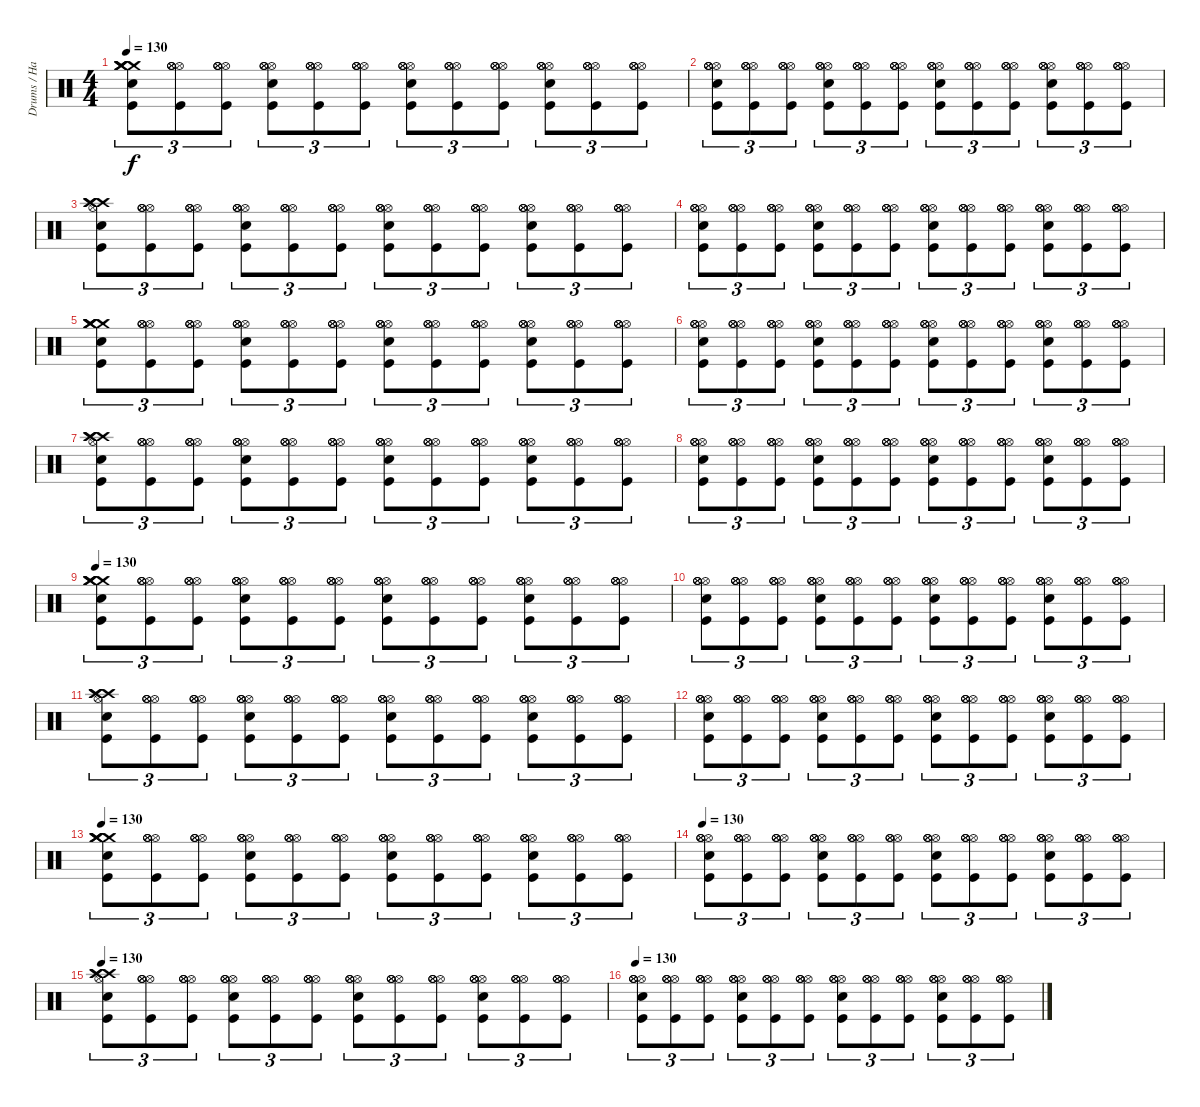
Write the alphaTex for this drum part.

\track ("Drums / Hammer of God" "Drums / Ha") {instrument percussion}
\staff {score}
\articulation defaults
\ts (4 4)
\tempo 130
\clef neutral
\ks c
("Crash medium (hit)" "Crash medium (hit)" "Snare (hit) 2" "Crash medium (hit)" "Crash medium (hit)" "Kick (hit)").8{tu (3 2) dy f} ("Hi-Hat (open)" "Hi-Hat (open)" "Hi-Hat (open)" "Hi-Hat (open)" "Kick (hit)").8{tu (3 2)} ("Hi-Hat (open)" "Hi-Hat (open)" "Hi-Hat (open)" "Hi-Hat (open)" "Kick (hit)").8{tu (3 2)} ("Hi-Hat (open)" "Hi-Hat (open)" "Snare (hit) 2" "Hi-Hat (open)" "Hi-Hat (open)" "Kick (hit)").8{tu (3 2)} ("Hi-Hat (open)" "Hi-Hat (open)" "Hi-Hat (open)" "Hi-Hat (open)" "Kick (hit)").8{tu (3 2)} ("Hi-Hat (open)" "Hi-Hat (open)" "Hi-Hat (open)" "Hi-Hat (open)" "Kick (hit)").8{tu (3 2)} ("Hi-Hat (open)" "Hi-Hat (open)" "Snare (hit) 2" "Hi-Hat (open)" "Hi-Hat (open)" "Kick (hit)").8{tu (3 2)} ("Hi-Hat (open)" "Hi-Hat (open)" "Hi-Hat (open)" "Hi-Hat (open)" "Kick (hit)").8{tu (3 2)} ("Hi-Hat (open)" "Hi-Hat (open)" "Hi-Hat (open)" "Hi-Hat (open)" "Kick (hit)").8{tu (3 2)} ("Hi-Hat (open)" "Hi-Hat (open)" "Snare (hit) 2" "Hi-Hat (open)" "Hi-Hat (open)" "Kick (hit)").8{tu (3 2)} ("Hi-Hat (open)" "Hi-Hat (open)" "Hi-Hat (open)" "Hi-Hat (open)" "Kick (hit)").8{tu (3 2)} ("Hi-Hat (open)" "Hi-Hat (open)" "Hi-Hat (open)" "Hi-Hat (open)" "Kick (hit)").8{tu (3 2)} |
("Hi-Hat (open)" "Hi-Hat (open)" "Snare (hit) 2" "Hi-Hat (open)" "Hi-Hat (open)" "Kick (hit)").8{tu (3 2)} ("Hi-Hat (open)" "Hi-Hat (open)" "Hi-Hat (open)" "Hi-Hat (open)" "Kick (hit)").8{tu (3 2)} ("Hi-Hat (open)" "Hi-Hat (open)" "Hi-Hat (open)" "Hi-Hat (open)" "Kick (hit)").8{tu (3 2)} ("Hi-Hat (open)" "Hi-Hat (open)" "Snare (hit) 2" "Hi-Hat (open)" "Hi-Hat (open)" "Kick (hit)").8{tu (3 2)} ("Hi-Hat (open)" "Hi-Hat (open)" "Hi-Hat (open)" "Hi-Hat (open)" "Kick (hit)").8{tu (3 2)} ("Hi-Hat (open)" "Hi-Hat (open)" "Hi-Hat (open)" "Hi-Hat (open)" "Kick (hit)").8{tu (3 2)} ("Hi-Hat (open)" "Hi-Hat (open)" "Snare (hit) 2" "Hi-Hat (open)" "Hi-Hat (open)" "Kick (hit)").8{tu (3 2)} ("Hi-Hat (open)" "Hi-Hat (open)" "Hi-Hat (open)" "Hi-Hat (open)" "Kick (hit)").8{tu (3 2)} ("Hi-Hat (open)" "Hi-Hat (open)" "Hi-Hat (open)" "Hi-Hat (open)" "Kick (hit)").8{tu (3 2)} ("Hi-Hat (open)" "Hi-Hat (open)" "Snare (hit) 2" "Hi-Hat (open)" "Hi-Hat (open)" "Kick (hit)").8{tu (3 2)} ("Hi-Hat (open)" "Hi-Hat (open)" "Hi-Hat (open)" "Hi-Hat (open)" "Kick (hit)").8{tu (3 2)} ("Hi-Hat (open)" "Hi-Hat (open)" "Hi-Hat (open)" "Hi-Hat (open)" "Kick (hit)").8{tu (3 2)} |
("Crash high (hit)" "Crash high (hit)" "Snare (hit) 2" "Crash high (hit)" "Hi-Hat (open)" "Kick (hit)").8{tu (3 2)} ("Hi-Hat (open)" "Hi-Hat (open)" "Hi-Hat (open)" "Hi-Hat (open)" "Kick (hit)").8{tu (3 2)} ("Hi-Hat (open)" "Hi-Hat (open)" "Hi-Hat (open)" "Hi-Hat (open)" "Kick (hit)").8{tu (3 2)} ("Hi-Hat (open)" "Hi-Hat (open)" "Snare (hit) 2" "Hi-Hat (open)" "Hi-Hat (open)" "Kick (hit)").8{tu (3 2)} ("Hi-Hat (open)" "Hi-Hat (open)" "Hi-Hat (open)" "Hi-Hat (open)" "Kick (hit)").8{tu (3 2)} ("Hi-Hat (open)" "Hi-Hat (open)" "Hi-Hat (open)" "Hi-Hat (open)" "Kick (hit)").8{tu (3 2)} ("Hi-Hat (open)" "Hi-Hat (open)" "Snare (hit) 2" "Hi-Hat (open)" "Hi-Hat (open)" "Kick (hit)").8{tu (3 2)} ("Hi-Hat (open)" "Hi-Hat (open)" "Hi-Hat (open)" "Hi-Hat (open)" "Kick (hit)").8{tu (3 2)} ("Hi-Hat (open)" "Hi-Hat (open)" "Hi-Hat (open)" "Hi-Hat (open)" "Kick (hit)").8{tu (3 2)} ("Hi-Hat (open)" "Hi-Hat (open)" "Snare (hit) 2" "Hi-Hat (open)" "Hi-Hat (open)" "Kick (hit)").8{tu (3 2)} ("Hi-Hat (open)" "Hi-Hat (open)" "Hi-Hat (open)" "Hi-Hat (open)" "Kick (hit)").8{tu (3 2)} ("Hi-Hat (open)" "Hi-Hat (open)" "Hi-Hat (open)" "Hi-Hat (open)" "Kick (hit)").8{tu (3 2)} |
("Hi-Hat (open)" "Hi-Hat (open)" "Snare (hit) 2" "Hi-Hat (open)" "Hi-Hat (open)" "Kick (hit)").8{tu (3 2)} ("Hi-Hat (open)" "Hi-Hat (open)" "Hi-Hat (open)" "Hi-Hat (open)" "Kick (hit)").8{tu (3 2)} ("Hi-Hat (open)" "Hi-Hat (open)" "Hi-Hat (open)" "Hi-Hat (open)" "Kick (hit)").8{tu (3 2)} ("Hi-Hat (open)" "Hi-Hat (open)" "Snare (hit) 2" "Hi-Hat (open)" "Hi-Hat (open)" "Kick (hit)").8{tu (3 2)} ("Hi-Hat (open)" "Hi-Hat (open)" "Hi-Hat (open)" "Hi-Hat (open)" "Kick (hit)").8{tu (3 2)} ("Hi-Hat (open)" "Hi-Hat (open)" "Hi-Hat (open)" "Hi-Hat (open)" "Kick (hit)").8{tu (3 2)} ("Hi-Hat (open)" "Hi-Hat (open)" "Snare (hit) 2" "Hi-Hat (open)" "Hi-Hat (open)" "Kick (hit)").8{tu (3 2)} ("Hi-Hat (open)" "Hi-Hat (open)" "Hi-Hat (open)" "Hi-Hat (open)" "Kick (hit)").8{tu (3 2)} ("Hi-Hat (open)" "Hi-Hat (open)" "Hi-Hat (open)" "Hi-Hat (open)" "Kick (hit)").8{tu (3 2)} ("Hi-Hat (open)" "Hi-Hat (open)" "Snare (hit) 2" "Hi-Hat (open)" "Hi-Hat (open)" "Kick (hit)").8{tu (3 2)} ("Hi-Hat (open)" "Hi-Hat (open)" "Hi-Hat (open)" "Hi-Hat (open)" "Kick (hit)").8{tu (3 2)} ("Hi-Hat (open)" "Hi-Hat (open)" "Hi-Hat (open)" "Hi-Hat (open)" "Kick (hit)").8{tu (3 2)} |
("Crash medium (hit)" "Crash medium (hit)" "Snare (hit) 2" "Crash medium (hit)" "Crash medium (hit)" "Kick (hit)").8{tu (3 2)} ("Hi-Hat (open)" "Hi-Hat (open)" "Hi-Hat (open)" "Hi-Hat (open)" "Kick (hit)").8{tu (3 2)} ("Hi-Hat (open)" "Hi-Hat (open)" "Hi-Hat (open)" "Hi-Hat (open)" "Kick (hit)").8{tu (3 2)} ("Hi-Hat (open)" "Hi-Hat (open)" "Snare (hit) 2" "Hi-Hat (open)" "Hi-Hat (open)" "Kick (hit)").8{tu (3 2)} ("Hi-Hat (open)" "Hi-Hat (open)" "Hi-Hat (open)" "Hi-Hat (open)" "Kick (hit)").8{tu (3 2)} ("Hi-Hat (open)" "Hi-Hat (open)" "Hi-Hat (open)" "Hi-Hat (open)" "Kick (hit)").8{tu (3 2)} ("Hi-Hat (open)" "Hi-Hat (open)" "Snare (hit) 2" "Hi-Hat (open)" "Hi-Hat (open)" "Kick (hit)").8{tu (3 2)} ("Hi-Hat (open)" "Hi-Hat (open)" "Hi-Hat (open)" "Hi-Hat (open)" "Kick (hit)").8{tu (3 2)} ("Hi-Hat (open)" "Hi-Hat (open)" "Hi-Hat (open)" "Hi-Hat (open)" "Kick (hit)").8{tu (3 2)} ("Hi-Hat (open)" "Hi-Hat (open)" "Snare (hit) 2" "Hi-Hat (open)" "Hi-Hat (open)" "Kick (hit)").8{tu (3 2)} ("Hi-Hat (open)" "Hi-Hat (open)" "Hi-Hat (open)" "Hi-Hat (open)" "Kick (hit)").8{tu (3 2)} ("Hi-Hat (open)" "Hi-Hat (open)" "Hi-Hat (open)" "Hi-Hat (open)" "Kick (hit)").8{tu (3 2)} |
("Hi-Hat (open)" "Hi-Hat (open)" "Snare (hit) 2" "Hi-Hat (open)" "Hi-Hat (open)" "Kick (hit)").8{tu (3 2)} ("Hi-Hat (open)" "Hi-Hat (open)" "Hi-Hat (open)" "Hi-Hat (open)" "Kick (hit)").8{tu (3 2)} ("Hi-Hat (open)" "Hi-Hat (open)" "Hi-Hat (open)" "Hi-Hat (open)" "Kick (hit)").8{tu (3 2)} ("Hi-Hat (open)" "Hi-Hat (open)" "Snare (hit) 2" "Hi-Hat (open)" "Hi-Hat (open)" "Kick (hit)").8{tu (3 2)} ("Hi-Hat (open)" "Hi-Hat (open)" "Hi-Hat (open)" "Hi-Hat (open)" "Kick (hit)").8{tu (3 2)} ("Hi-Hat (open)" "Hi-Hat (open)" "Hi-Hat (open)" "Hi-Hat (open)" "Kick (hit)").8{tu (3 2)} ("Hi-Hat (open)" "Hi-Hat (open)" "Snare (hit) 2" "Hi-Hat (open)" "Hi-Hat (open)" "Kick (hit)").8{tu (3 2)} ("Hi-Hat (open)" "Hi-Hat (open)" "Hi-Hat (open)" "Hi-Hat (open)" "Kick (hit)").8{tu (3 2)} ("Hi-Hat (open)" "Hi-Hat (open)" "Hi-Hat (open)" "Hi-Hat (open)" "Kick (hit)").8{tu (3 2)} ("Hi-Hat (open)" "Hi-Hat (open)" "Snare (hit) 2" "Hi-Hat (open)" "Hi-Hat (open)" "Kick (hit)").8{tu (3 2)} ("Hi-Hat (open)" "Hi-Hat (open)" "Hi-Hat (open)" "Hi-Hat (open)" "Kick (hit)").8{tu (3 2)} ("Hi-Hat (open)" "Hi-Hat (open)" "Hi-Hat (open)" "Hi-Hat (open)" "Kick (hit)").8{tu (3 2)} |
("Crash high (hit)" "Crash high (hit)" "Snare (hit) 2" "Crash high (hit)" "Hi-Hat (open)" "Kick (hit)").8{tu (3 2)} ("Hi-Hat (open)" "Hi-Hat (open)" "Hi-Hat (open)" "Hi-Hat (open)" "Kick (hit)").8{tu (3 2)} ("Hi-Hat (open)" "Hi-Hat (open)" "Hi-Hat (open)" "Hi-Hat (open)" "Kick (hit)").8{tu (3 2)} ("Hi-Hat (open)" "Hi-Hat (open)" "Snare (hit) 2" "Hi-Hat (open)" "Hi-Hat (open)" "Kick (hit)").8{tu (3 2)} ("Hi-Hat (open)" "Hi-Hat (open)" "Hi-Hat (open)" "Hi-Hat (open)" "Kick (hit)").8{tu (3 2)} ("Hi-Hat (open)" "Hi-Hat (open)" "Hi-Hat (open)" "Hi-Hat (open)" "Kick (hit)").8{tu (3 2)} ("Hi-Hat (open)" "Hi-Hat (open)" "Snare (hit) 2" "Hi-Hat (open)" "Hi-Hat (open)" "Kick (hit)").8{tu (3 2)} ("Hi-Hat (open)" "Hi-Hat (open)" "Hi-Hat (open)" "Hi-Hat (open)" "Kick (hit)").8{tu (3 2)} ("Hi-Hat (open)" "Hi-Hat (open)" "Hi-Hat (open)" "Hi-Hat (open)" "Kick (hit)").8{tu (3 2)} ("Hi-Hat (open)" "Hi-Hat (open)" "Snare (hit) 2" "Hi-Hat (open)" "Hi-Hat (open)" "Kick (hit)").8{tu (3 2)} ("Hi-Hat (open)" "Hi-Hat (open)" "Hi-Hat (open)" "Hi-Hat (open)" "Kick (hit)").8{tu (3 2)} ("Hi-Hat (open)" "Hi-Hat (open)" "Hi-Hat (open)" "Hi-Hat (open)" "Kick (hit)").8{tu (3 2)} |
("Hi-Hat (open)" "Hi-Hat (open)" "Snare (hit) 2" "Hi-Hat (open)" "Hi-Hat (open)" "Kick (hit)").8{tu (3 2)} ("Hi-Hat (open)" "Hi-Hat (open)" "Hi-Hat (open)" "Hi-Hat (open)" "Kick (hit)").8{tu (3 2)} ("Hi-Hat (open)" "Hi-Hat (open)" "Hi-Hat (open)" "Hi-Hat (open)" "Kick (hit)").8{tu (3 2)} ("Hi-Hat (open)" "Hi-Hat (open)" "Snare (hit) 2" "Hi-Hat (open)" "Hi-Hat (open)" "Kick (hit)").8{tu (3 2)} ("Hi-Hat (open)" "Hi-Hat (open)" "Hi-Hat (open)" "Hi-Hat (open)" "Kick (hit)").8{tu (3 2)} ("Hi-Hat (open)" "Hi-Hat (open)" "Hi-Hat (open)" "Hi-Hat (open)" "Kick (hit)").8{tu (3 2)} ("Hi-Hat (open)" "Hi-Hat (open)" "Snare (hit) 2" "Hi-Hat (open)" "Hi-Hat (open)" "Kick (hit)").8{tu (3 2)} ("Hi-Hat (open)" "Hi-Hat (open)" "Hi-Hat (open)" "Hi-Hat (open)" "Kick (hit)").8{tu (3 2)} ("Hi-Hat (open)" "Hi-Hat (open)" "Hi-Hat (open)" "Hi-Hat (open)" "Kick (hit)").8{tu (3 2)} ("Hi-Hat (open)" "Hi-Hat (open)" "Snare (hit) 2" "Hi-Hat (open)" "Hi-Hat (open)" "Kick (hit)").8{tu (3 2)} ("Hi-Hat (open)" "Hi-Hat (open)" "Hi-Hat (open)" "Hi-Hat (open)" "Kick (hit)").8{tu (3 2)} ("Hi-Hat (open)" "Hi-Hat (open)" "Hi-Hat (open)" "Hi-Hat (open)" "Kick (hit)").8{tu (3 2)} |
\tempo 130
("Crash medium (hit)" "Crash medium (hit)" "Snare (hit) 2" "Crash medium (hit)" "Crash medium (hit)" "Kick (hit)").8{tu (3 2)} ("Hi-Hat (open)" "Hi-Hat (open)" "Hi-Hat (open)" "Hi-Hat (open)" "Kick (hit)").8{tu (3 2)} ("Hi-Hat (open)" "Hi-Hat (open)" "Hi-Hat (open)" "Hi-Hat (open)" "Kick (hit)").8{tu (3 2)} ("Hi-Hat (open)" "Hi-Hat (open)" "Snare (hit) 2" "Hi-Hat (open)" "Hi-Hat (open)" "Kick (hit)").8{tu (3 2)} ("Hi-Hat (open)" "Hi-Hat (open)" "Hi-Hat (open)" "Hi-Hat (open)" "Kick (hit)").8{tu (3 2)} ("Hi-Hat (open)" "Hi-Hat (open)" "Hi-Hat (open)" "Hi-Hat (open)" "Kick (hit)").8{tu (3 2)} ("Hi-Hat (open)" "Hi-Hat (open)" "Snare (hit) 2" "Hi-Hat (open)" "Hi-Hat (open)" "Kick (hit)").8{tu (3 2)} ("Hi-Hat (open)" "Hi-Hat (open)" "Hi-Hat (open)" "Hi-Hat (open)" "Kick (hit)").8{tu (3 2)} ("Hi-Hat (open)" "Hi-Hat (open)" "Hi-Hat (open)" "Hi-Hat (open)" "Kick (hit)").8{tu (3 2)} ("Hi-Hat (open)" "Hi-Hat (open)" "Snare (hit) 2" "Hi-Hat (open)" "Hi-Hat (open)" "Kick (hit)").8{tu (3 2)} ("Hi-Hat (open)" "Hi-Hat (open)" "Hi-Hat (open)" "Hi-Hat (open)" "Kick (hit)").8{tu (3 2)} ("Hi-Hat (open)" "Hi-Hat (open)" "Hi-Hat (open)" "Hi-Hat (open)" "Kick (hit)").8{tu (3 2)} |
("Hi-Hat (open)" "Hi-Hat (open)" "Snare (hit) 2" "Hi-Hat (open)" "Hi-Hat (open)" "Kick (hit)").8{tu (3 2)} ("Hi-Hat (open)" "Hi-Hat (open)" "Hi-Hat (open)" "Hi-Hat (open)" "Kick (hit)").8{tu (3 2)} ("Hi-Hat (open)" "Hi-Hat (open)" "Hi-Hat (open)" "Hi-Hat (open)" "Kick (hit)").8{tu (3 2)} ("Hi-Hat (open)" "Hi-Hat (open)" "Snare (hit) 2" "Hi-Hat (open)" "Hi-Hat (open)" "Kick (hit)").8{tu (3 2)} ("Hi-Hat (open)" "Hi-Hat (open)" "Hi-Hat (open)" "Hi-Hat (open)" "Kick (hit)").8{tu (3 2)} ("Hi-Hat (open)" "Hi-Hat (open)" "Hi-Hat (open)" "Hi-Hat (open)" "Kick (hit)").8{tu (3 2)} ("Hi-Hat (open)" "Hi-Hat (open)" "Snare (hit) 2" "Hi-Hat (open)" "Hi-Hat (open)" "Kick (hit)").8{tu (3 2)} ("Hi-Hat (open)" "Hi-Hat (open)" "Hi-Hat (open)" "Hi-Hat (open)" "Kick (hit)").8{tu (3 2)} ("Hi-Hat (open)" "Hi-Hat (open)" "Hi-Hat (open)" "Hi-Hat (open)" "Kick (hit)").8{tu (3 2)} ("Hi-Hat (open)" "Hi-Hat (open)" "Snare (hit) 2" "Hi-Hat (open)" "Hi-Hat (open)" "Kick (hit)").8{tu (3 2)} ("Hi-Hat (open)" "Hi-Hat (open)" "Hi-Hat (open)" "Hi-Hat (open)" "Kick (hit)").8{tu (3 2)} ("Hi-Hat (open)" "Hi-Hat (open)" "Hi-Hat (open)" "Hi-Hat (open)" "Kick (hit)").8{tu (3 2)} |
("Crash high (hit)" "Crash high (hit)" "Snare (hit) 2" "Crash high (hit)" "Hi-Hat (open)" "Kick (hit)").8{tu (3 2)} ("Hi-Hat (open)" "Hi-Hat (open)" "Hi-Hat (open)" "Hi-Hat (open)" "Kick (hit)").8{tu (3 2)} ("Hi-Hat (open)" "Hi-Hat (open)" "Hi-Hat (open)" "Hi-Hat (open)" "Kick (hit)").8{tu (3 2)} ("Hi-Hat (open)" "Hi-Hat (open)" "Snare (hit) 2" "Hi-Hat (open)" "Hi-Hat (open)" "Kick (hit)").8{tu (3 2)} ("Hi-Hat (open)" "Hi-Hat (open)" "Hi-Hat (open)" "Hi-Hat (open)" "Kick (hit)").8{tu (3 2)} ("Hi-Hat (open)" "Hi-Hat (open)" "Hi-Hat (open)" "Hi-Hat (open)" "Kick (hit)").8{tu (3 2)} ("Hi-Hat (open)" "Hi-Hat (open)" "Snare (hit) 2" "Hi-Hat (open)" "Hi-Hat (open)" "Kick (hit)").8{tu (3 2)} ("Hi-Hat (open)" "Hi-Hat (open)" "Hi-Hat (open)" "Hi-Hat (open)" "Kick (hit)").8{tu (3 2)} ("Hi-Hat (open)" "Hi-Hat (open)" "Hi-Hat (open)" "Hi-Hat (open)" "Kick (hit)").8{tu (3 2)} ("Hi-Hat (open)" "Hi-Hat (open)" "Snare (hit) 2" "Hi-Hat (open)" "Hi-Hat (open)" "Kick (hit)").8{tu (3 2)} ("Hi-Hat (open)" "Hi-Hat (open)" "Hi-Hat (open)" "Hi-Hat (open)" "Kick (hit)").8{tu (3 2)} ("Hi-Hat (open)" "Hi-Hat (open)" "Hi-Hat (open)" "Hi-Hat (open)" "Kick (hit)").8{tu (3 2)} |
("Hi-Hat (open)" "Hi-Hat (open)" "Snare (hit) 2" "Hi-Hat (open)" "Hi-Hat (open)" "Kick (hit)").8{tu (3 2)} ("Hi-Hat (open)" "Hi-Hat (open)" "Hi-Hat (open)" "Hi-Hat (open)" "Kick (hit)").8{tu (3 2)} ("Hi-Hat (open)" "Hi-Hat (open)" "Hi-Hat (open)" "Hi-Hat (open)" "Kick (hit)").8{tu (3 2)} ("Hi-Hat (open)" "Hi-Hat (open)" "Snare (hit) 2" "Hi-Hat (open)" "Hi-Hat (open)" "Kick (hit)").8{tu (3 2)} ("Hi-Hat (open)" "Hi-Hat (open)" "Hi-Hat (open)" "Hi-Hat (open)" "Kick (hit)").8{tu (3 2)} ("Hi-Hat (open)" "Hi-Hat (open)" "Hi-Hat (open)" "Hi-Hat (open)" "Kick (hit)").8{tu (3 2)} ("Hi-Hat (open)" "Hi-Hat (open)" "Snare (hit) 2" "Hi-Hat (open)" "Hi-Hat (open)" "Kick (hit)").8{tu (3 2)} ("Hi-Hat (open)" "Hi-Hat (open)" "Hi-Hat (open)" "Hi-Hat (open)" "Kick (hit)").8{tu (3 2)} ("Hi-Hat (open)" "Hi-Hat (open)" "Hi-Hat (open)" "Hi-Hat (open)" "Kick (hit)").8{tu (3 2)} ("Hi-Hat (open)" "Hi-Hat (open)" "Snare (hit) 2" "Hi-Hat (open)" "Hi-Hat (open)" "Kick (hit)").8{tu (3 2)} ("Hi-Hat (open)" "Hi-Hat (open)" "Hi-Hat (open)" "Hi-Hat (open)" "Kick (hit)").8{tu (3 2)} ("Hi-Hat (open)" "Hi-Hat (open)" "Hi-Hat (open)" "Hi-Hat (open)" "Kick (hit)").8{tu (3 2)} |
\tempo 130
("Crash medium (hit)" "Crash medium (hit)" "Snare (hit) 2" "Crash medium (hit)" "Crash medium (hit)" "Kick (hit)").8{tu (3 2)} ("Hi-Hat (open)" "Hi-Hat (open)" "Hi-Hat (open)" "Hi-Hat (open)" "Kick (hit)").8{tu (3 2)} ("Hi-Hat (open)" "Hi-Hat (open)" "Hi-Hat (open)" "Hi-Hat (open)" "Kick (hit)").8{tu (3 2)} ("Hi-Hat (open)" "Hi-Hat (open)" "Snare (hit) 2" "Hi-Hat (open)" "Hi-Hat (open)" "Kick (hit)").8{tu (3 2)} ("Hi-Hat (open)" "Hi-Hat (open)" "Hi-Hat (open)" "Hi-Hat (open)" "Kick (hit)").8{tu (3 2)} ("Hi-Hat (open)" "Hi-Hat (open)" "Hi-Hat (open)" "Hi-Hat (open)" "Kick (hit)").8{tu (3 2)} ("Hi-Hat (open)" "Hi-Hat (open)" "Snare (hit) 2" "Hi-Hat (open)" "Hi-Hat (open)" "Kick (hit)").8{tu (3 2)} ("Hi-Hat (open)" "Hi-Hat (open)" "Hi-Hat (open)" "Hi-Hat (open)" "Kick (hit)").8{tu (3 2)} ("Hi-Hat (open)" "Hi-Hat (open)" "Hi-Hat (open)" "Hi-Hat (open)" "Kick (hit)").8{tu (3 2)} ("Hi-Hat (open)" "Hi-Hat (open)" "Snare (hit) 2" "Hi-Hat (open)" "Hi-Hat (open)" "Kick (hit)").8{tu (3 2)} ("Hi-Hat (open)" "Hi-Hat (open)" "Hi-Hat (open)" "Hi-Hat (open)" "Kick (hit)").8{tu (3 2)} ("Hi-Hat (open)" "Hi-Hat (open)" "Hi-Hat (open)" "Hi-Hat (open)" "Kick (hit)").8{tu (3 2)} |
\tempo 130
("Hi-Hat (open)" "Hi-Hat (open)" "Snare (hit) 2" "Hi-Hat (open)" "Hi-Hat (open)" "Kick (hit)").8{tu (3 2)} ("Hi-Hat (open)" "Hi-Hat (open)" "Hi-Hat (open)" "Hi-Hat (open)" "Kick (hit)").8{tu (3 2)} ("Hi-Hat (open)" "Hi-Hat (open)" "Hi-Hat (open)" "Hi-Hat (open)" "Kick (hit)").8{tu (3 2)} ("Hi-Hat (open)" "Hi-Hat (open)" "Snare (hit) 2" "Hi-Hat (open)" "Hi-Hat (open)" "Kick (hit)").8{tu (3 2)} ("Hi-Hat (open)" "Hi-Hat (open)" "Hi-Hat (open)" "Hi-Hat (open)" "Kick (hit)").8{tu (3 2)} ("Hi-Hat (open)" "Hi-Hat (open)" "Hi-Hat (open)" "Hi-Hat (open)" "Kick (hit)").8{tu (3 2)} ("Hi-Hat (open)" "Hi-Hat (open)" "Snare (hit) 2" "Hi-Hat (open)" "Hi-Hat (open)" "Kick (hit)").8{tu (3 2)} ("Hi-Hat (open)" "Hi-Hat (open)" "Hi-Hat (open)" "Hi-Hat (open)" "Kick (hit)").8{tu (3 2)} ("Hi-Hat (open)" "Hi-Hat (open)" "Hi-Hat (open)" "Hi-Hat (open)" "Kick (hit)").8{tu (3 2)} ("Hi-Hat (open)" "Hi-Hat (open)" "Snare (hit) 2" "Hi-Hat (open)" "Hi-Hat (open)" "Kick (hit)").8{tu (3 2)} ("Hi-Hat (open)" "Hi-Hat (open)" "Hi-Hat (open)" "Hi-Hat (open)" "Kick (hit)").8{tu (3 2)} ("Hi-Hat (open)" "Hi-Hat (open)" "Hi-Hat (open)" "Hi-Hat (open)" "Kick (hit)").8{tu (3 2)} |
\tempo 130
("Crash high (hit)" "Crash high (hit)" "Snare (hit) 2" "Crash high (hit)" "Hi-Hat (open)" "Kick (hit)").8{tu (3 2)} ("Hi-Hat (open)" "Hi-Hat (open)" "Hi-Hat (open)" "Hi-Hat (open)" "Kick (hit)").8{tu (3 2)} ("Hi-Hat (open)" "Hi-Hat (open)" "Hi-Hat (open)" "Hi-Hat (open)" "Kick (hit)").8{tu (3 2)} ("Hi-Hat (open)" "Hi-Hat (open)" "Snare (hit) 2" "Hi-Hat (open)" "Hi-Hat (open)" "Kick (hit)").8{tu (3 2)} ("Hi-Hat (open)" "Hi-Hat (open)" "Hi-Hat (open)" "Hi-Hat (open)" "Kick (hit)").8{tu (3 2)} ("Hi-Hat (open)" "Hi-Hat (open)" "Hi-Hat (open)" "Hi-Hat (open)" "Kick (hit)").8{tu (3 2)} ("Hi-Hat (open)" "Hi-Hat (open)" "Snare (hit) 2" "Hi-Hat (open)" "Hi-Hat (open)" "Kick (hit)").8{tu (3 2)} ("Hi-Hat (open)" "Hi-Hat (open)" "Hi-Hat (open)" "Hi-Hat (open)" "Kick (hit)").8{tu (3 2)} ("Hi-Hat (open)" "Hi-Hat (open)" "Hi-Hat (open)" "Hi-Hat (open)" "Kick (hit)").8{tu (3 2)} ("Hi-Hat (open)" "Hi-Hat (open)" "Snare (hit) 2" "Hi-Hat (open)" "Hi-Hat (open)" "Kick (hit)").8{tu (3 2)} ("Hi-Hat (open)" "Hi-Hat (open)" "Hi-Hat (open)" "Hi-Hat (open)" "Kick (hit)").8{tu (3 2)} ("Hi-Hat (open)" "Hi-Hat (open)" "Hi-Hat (open)" "Hi-Hat (open)" "Kick (hit)").8{tu (3 2)} |
\tempo 130
("Hi-Hat (open)" "Hi-Hat (open)" "Snare (hit) 2" "Hi-Hat (open)" "Hi-Hat (open)" "Kick (hit)").8{tu (3 2)} ("Hi-Hat (open)" "Hi-Hat (open)" "Hi-Hat (open)" "Hi-Hat (open)" "Kick (hit)").8{tu (3 2)} ("Hi-Hat (open)" "Hi-Hat (open)" "Hi-Hat (open)" "Hi-Hat (open)" "Kick (hit)").8{tu (3 2)} ("Hi-Hat (open)" "Hi-Hat (open)" "Snare (hit) 2" "Hi-Hat (open)" "Hi-Hat (open)" "Kick (hit)").8{tu (3 2)} ("Hi-Hat (open)" "Hi-Hat (open)" "Hi-Hat (open)" "Hi-Hat (open)" "Kick (hit)").8{tu (3 2)} ("Hi-Hat (open)" "Hi-Hat (open)" "Hi-Hat (open)" "Hi-Hat (open)" "Kick (hit)").8{tu (3 2)} ("Hi-Hat (open)" "Hi-Hat (open)" "Snare (hit) 2" "Hi-Hat (open)" "Hi-Hat (open)" "Kick (hit)").8{tu (3 2)} ("Hi-Hat (open)" "Hi-Hat (open)" "Hi-Hat (open)" "Hi-Hat (open)" "Kick (hit)").8{tu (3 2)} ("Hi-Hat (open)" "Hi-Hat (open)" "Hi-Hat (open)" "Hi-Hat (open)" "Kick (hit)").8{tu (3 2)} ("Hi-Hat (open)" "Hi-Hat (open)" "Snare (hit) 2" "Hi-Hat (open)" "Hi-Hat (open)" "Kick (hit)").8{tu (3 2)} ("Hi-Hat (open)" "Hi-Hat (open)" "Hi-Hat (open)" "Hi-Hat (open)" "Kick (hit)").8{tu (3 2)} ("Hi-Hat (open)" "Hi-Hat (open)" "Hi-Hat (open)" "Hi-Hat (open)" "Kick (hit)").8{tu (3 2)}
